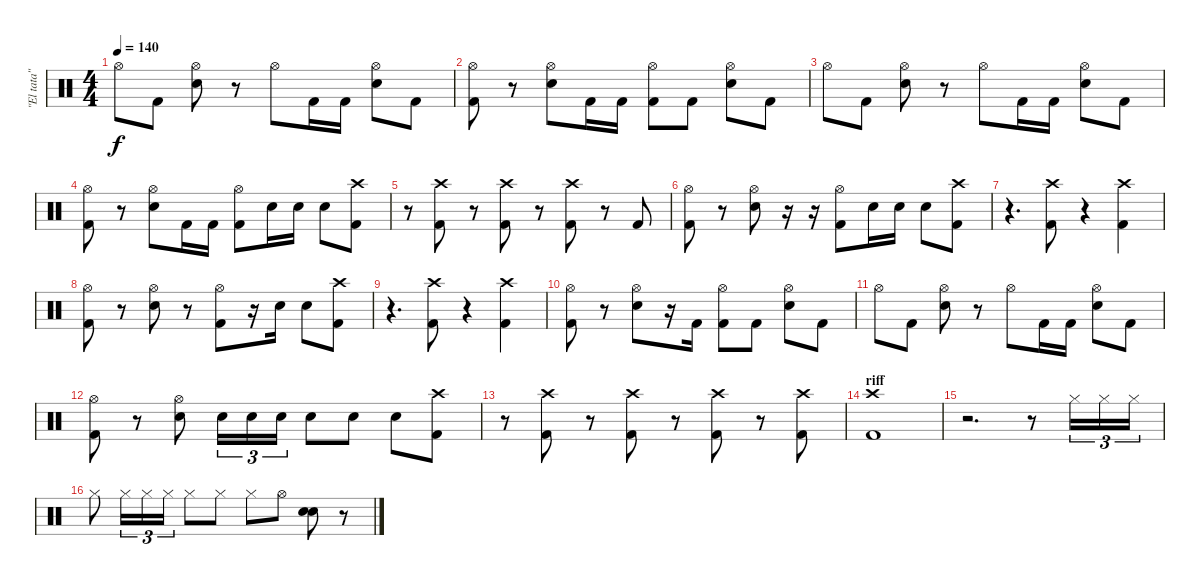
\track ("\"El tata\"" "\"El tata\"") {instrument percussion}
\staff {score}
\articulation defaults
\ts (4 4)
\tempo 140
\clef neutral
\ks c "Hi-Hat (open)".8{dy f} "Kick (hit) 2".8
("Hi-Hat (open)" "Electric Snare (hit)").8 r.8 "Hi-Hat (open)".8 "Kick (hit) 2".16 "Kick (hit) 2".16 ("Hi-Hat (open)" "Electric Snare (hit)").8 "Kick (hit) 2".8 |
("Hi-Hat (open)" "Kick (hit) 2").8 r.8 ("Hi-Hat (open)" "Electric Snare (hit)").8 "Kick (hit) 2".16 "Kick (hit) 2".16 ("Hi-Hat (open)" "Kick (hit) 2").8 "Kick (hit) 2".8 ("Hi-Hat (open)" "Electric Snare (hit)").8 "Kick (hit) 2".8 |
"Hi-Hat (open)".8 "Kick (hit) 2".8 ("Hi-Hat (open)" "Electric Snare (hit)").8 r.8 "Hi-Hat (open)".8 "Kick (hit) 2".16 "Kick (hit) 2".16 ("Hi-Hat (open)" "Electric Snare (hit)").8 "Kick (hit) 2".8 |
("Hi-Hat (open)" "Kick (hit) 2").8 r.8 ("Hi-Hat (open)" "Electric Snare (hit)").8 "Kick (hit) 2".16 "Kick (hit) 2".16 ("Hi-Hat (open)" "Kick (hit) 2").8 "Electric Snare (hit)".16 "Electric Snare (hit)".16 "Electric Snare (hit)".8 ("Crash high (hit)" "Kick (hit) 2").8 |
r.8 ("Crash high (hit)" "Kick (hit) 2").8 r.8 ("Crash high (hit)" "Kick (hit) 2").8 r.8 ("Crash high (hit)" "Kick (hit) 2").8 r.8 "Kick (hit) 2".8 |
("Hi-Hat (open)" "Kick (hit) 2").8 r.8 ("Hi-Hat (open)" "Electric Snare (hit)").8 r.16 r.16 ("Hi-Hat (open)" "Kick (hit) 2").8 "Electric Snare (hit)".16 "Electric Snare (hit)".16 "Electric Snare (hit)".8 ("Crash high (hit)" "Kick (hit) 2").8 |
r.4{d} ("Crash high (hit)" "Kick (hit) 2").8 r.4 ("Crash high (hit)" "Kick (hit) 2").4 |
("Hi-Hat (open)" "Kick (hit) 2").8 r.8 ("Hi-Hat (open)" "Electric Snare (hit)").8 r.8 ("Hi-Hat (open)" "Kick (hit) 2").8 r.16 "Electric Snare (hit)".16 "Electric Snare (hit)".8 ("Crash high (hit)" "Kick (hit) 2").8 |
r.4{d} ("Crash high (hit)" "Kick (hit) 2").8 r.4 ("Crash high (hit)" "Kick (hit) 2").4 |
("Hi-Hat (open)" "Kick (hit) 2").8 r.8 ("Hi-Hat (open)" "Electric Snare (hit)").8 r.16 "Kick (hit) 2".16 ("Hi-Hat (open)" "Kick (hit) 2").8 "Kick (hit) 2".8 ("Hi-Hat (open)" "Electric Snare (hit)").8 "Kick (hit) 2".8 |
"Hi-Hat (open)".8 "Kick (hit) 2".8 ("Hi-Hat (open)" "Electric Snare (hit)").8 r.8 "Hi-Hat (open)".8 "Kick (hit) 2".16 "Kick (hit) 2".16 ("Hi-Hat (open)" "Electric Snare (hit)").8 "Kick (hit) 2".8 |
("Hi-Hat (open)" "Kick (hit) 2").8 r.8 ("Hi-Hat (open)" "Electric Snare (hit)").8 "Electric Snare (hit)".16{tu (3 2)} "Electric Snare (hit)".16{tu (3 2)} "Electric Snare (hit)".16{tu (3 2)} "Electric Snare (hit)".8 "Electric Snare (hit)".8 "Electric Snare (hit)".8 ("Crash high (hit)" "Kick (hit) 2").8 |
r.8 ("Crash high (hit)" "Kick (hit) 2").8 r.8 ("Crash high (hit)" "Kick (hit) 2").8 r.8 ("Crash high (hit)" "Kick (hit) 2").8 r.8 ("Crash high (hit)" "Kick (hit) 2").8 |
\section ("" "riff")
("Crash high (hit)" "Kick (hit) 2").1 |
r.2{d} r.8 "Hi-Hat (closed)".16{tu (3 2)} "Hi-Hat (closed)".16{tu (3 2)} "Hi-Hat (closed)".16{tu (3 2)} |
"Hi-Hat (closed)".8 "Hi-Hat (closed)".16{tu (3 2)} "Hi-Hat (closed)".16{tu (3 2)} "Hi-Hat (closed)".16{tu (3 2)} "Hi-Hat (closed)".8 "Hi-Hat (closed)".8 "Hi-Hat (closed)".8 "Hi-Hat (open)".8 ("Electric Snare (hit)" "Electric Snare (hit)").8 r.8
